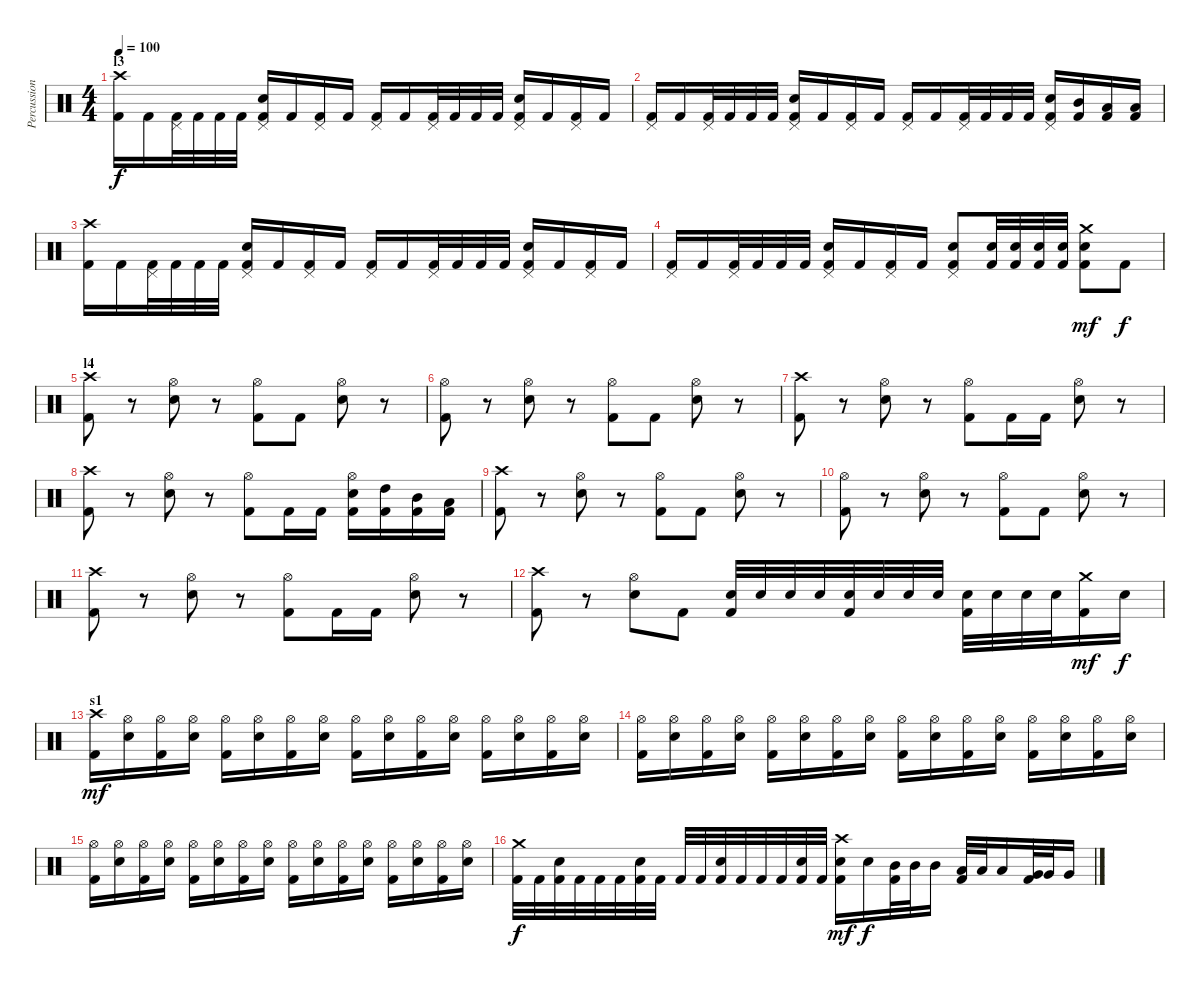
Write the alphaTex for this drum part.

\track ("Percussion" "Percussion") {instrument percussion}
\staff {score}
\articulation defaults
\ts (4 4)
\section ("" "l3")
\tempo 100
\clef neutral
\ks c
("Crash high (hit)" "Kick (hit) 2").16{dy f} "Kick (hit) 2".16 ("Pedal Hi-Hat (hit)" "Kick (hit) 2").32 "Kick (hit) 2".32 "Kick (hit) 2".32 "Kick (hit) 2".32 ("Pedal Hi-Hat (hit)" "Electric Snare (hit)" "Kick (hit) 2").16 "Kick (hit) 2".16 ("Pedal Hi-Hat (hit)" "Kick (hit) 2").16 "Kick (hit) 2".16 ("Pedal Hi-Hat (hit)" "Kick (hit) 2").16 "Kick (hit) 2".16 ("Pedal Hi-Hat (hit)" "Kick (hit) 2").32 "Kick (hit) 2".32 "Kick (hit) 2".32 "Kick (hit) 2".32 ("Pedal Hi-Hat (hit)" "Electric Snare (hit)" "Kick (hit) 2").16 "Kick (hit) 2".16 ("Pedal Hi-Hat (hit)" "Kick (hit) 2").16 "Kick (hit) 2".16 |
("Pedal Hi-Hat (hit)" "Kick (hit) 2").16 "Kick (hit) 2".16 ("Pedal Hi-Hat (hit)" "Kick (hit) 2").32 "Kick (hit) 2".32 "Kick (hit) 2".32 "Kick (hit) 2".32 ("Pedal Hi-Hat (hit)" "Electric Snare (hit)" "Kick (hit) 2").16 "Kick (hit) 2".16 ("Pedal Hi-Hat (hit)" "Kick (hit) 2").16 "Kick (hit) 2".16 ("Pedal Hi-Hat (hit)" "Kick (hit) 2").16 "Kick (hit) 2".16 ("Pedal Hi-Hat (hit)" "Kick (hit) 2").32 "Kick (hit) 2".32 "Kick (hit) 2".32 "Kick (hit) 2".32 ("Pedal Hi-Hat (hit)" "Electric Snare (hit)" "Kick (hit) 2").16 ("Mid Tom (hit)" "Kick (hit) 2").16 ("Low Tom (hit)" "Kick (hit) 2").16 ("Low Tom (hit)" "Kick (hit) 2").16 |
("Crash high (hit)" "Kick (hit) 2").16 "Kick (hit) 2".16 ("Pedal Hi-Hat (hit)" "Kick (hit) 2").32 "Kick (hit) 2".32 "Kick (hit) 2".32 "Kick (hit) 2".32 ("Pedal Hi-Hat (hit)" "Electric Snare (hit)" "Kick (hit) 2").16 "Kick (hit) 2".16 ("Pedal Hi-Hat (hit)" "Kick (hit) 2").16 "Kick (hit) 2".16 ("Pedal Hi-Hat (hit)" "Kick (hit) 2").16 "Kick (hit) 2".16 ("Pedal Hi-Hat (hit)" "Kick (hit) 2").32 "Kick (hit) 2".32 "Kick (hit) 2".32 "Kick (hit) 2".32 ("Pedal Hi-Hat (hit)" "Electric Snare (hit)" "Kick (hit) 2").16 "Kick (hit) 2".16 ("Pedal Hi-Hat (hit)" "Kick (hit) 2").16 "Kick (hit) 2".16 |
("Pedal Hi-Hat (hit)" "Kick (hit) 2").16 "Kick (hit) 2".16 ("Pedal Hi-Hat (hit)" "Kick (hit) 2").32 "Kick (hit) 2".32 "Kick (hit) 2".32 "Kick (hit) 2".32 ("Pedal Hi-Hat (hit)" "Electric Snare (hit)" "Kick (hit) 2").16 "Kick (hit) 2".16 ("Pedal Hi-Hat (hit)" "Kick (hit) 2").16 "Kick (hit) 2".16 ("Pedal Hi-Hat (hit)" "Electric Snare (hit)" "Kick (hit) 2").8 ("Electric Snare (hit)" "Kick (hit) 2").32 ("Electric Snare (hit)" "Kick (hit) 2").32 ("Electric Snare (hit)" "Kick (hit) 2").32 ("Electric Snare (hit)" "Kick (hit) 2").32 ("Crash medium (hit)" "Electric Snare (hit)" "Kick (hit) 2").8{dy mf} "Kick (hit) 2".8{dy f} |
\section ("" "l4")
("Crash high (hit)" "Kick (hit) 2").8 r.8 ("Hi-Hat (open)" "Electric Snare (hit)").8 r.8 ("Hi-Hat (open)" "Kick (hit) 2").8 "Kick (hit) 2".8 ("Hi-Hat (open)" "Electric Snare (hit)").8 r.8 |
("Hi-Hat (open)" "Kick (hit) 2").8 r.8 ("Hi-Hat (open)" "Electric Snare (hit)").8 r.8 ("Hi-Hat (open)" "Kick (hit) 2").8 "Kick (hit) 2".8 ("Hi-Hat (open)" "Electric Snare (hit)").8 r.8 |
("Crash high (hit)" "Kick (hit) 2").8 r.8 ("Hi-Hat (open)" "Electric Snare (hit)").8 r.8 ("Hi-Hat (open)" "Kick (hit) 2").8 "Kick (hit) 2".16 "Kick (hit) 2".16 ("Hi-Hat (open)" "Electric Snare (hit)").8 r.8 |
("Crash high (hit)" "Kick (hit) 2").8 r.8 ("Hi-Hat (open)" "Electric Snare (hit)").8 r.8 ("Hi-Hat (open)" "Kick (hit) 2").8 "Kick (hit) 2".16 "Kick (hit) 2".16 ("Hi-Hat (open)" "Electric Snare (hit)" "Kick (hit) 2").16 ("High Tom (hit)" "Kick (hit) 2").16 ("Mid Tom (hit)" "Kick (hit) 2").16 ("Low Tom (hit)" "Kick (hit) 2").16 |
("Crash high (hit)" "Kick (hit) 2").8 r.8 ("Hi-Hat (open)" "Electric Snare (hit)").8 r.8 ("Hi-Hat (open)" "Kick (hit) 2").8 "Kick (hit) 2".8 ("Hi-Hat (open)" "Electric Snare (hit)").8 r.8 |
("Hi-Hat (open)" "Kick (hit) 2").8 r.8 ("Hi-Hat (open)" "Electric Snare (hit)").8 r.8 ("Hi-Hat (open)" "Kick (hit) 2").8 "Kick (hit) 2".8 ("Hi-Hat (open)" "Electric Snare (hit)").8 r.8 |
("Crash high (hit)" "Kick (hit) 2").8 r.8 ("Hi-Hat (open)" "Electric Snare (hit)").8 r.8 ("Hi-Hat (open)" "Kick (hit) 2").8 "Kick (hit) 2".16 "Kick (hit) 2".16 ("Hi-Hat (open)" "Electric Snare (hit)").8 r.8 |
("Crash high (hit)" "Kick (hit) 2").8 r.8 ("Hi-Hat (open)" "Electric Snare (hit)").8 "Kick (hit) 2".8 ("Electric Snare (hit)" "Kick (hit) 2").32 "Electric Snare (hit)".32 "Electric Snare (hit)".32 "Electric Snare (hit)".32 ("Electric Snare (hit)" "Kick (hit) 2").32 "Electric Snare (hit)".32 "Electric Snare (hit)".32 "Electric Snare (hit)".32 ("Electric Snare (hit)" "Kick (hit) 2").32 "Electric Snare (hit)".32 "Electric Snare (hit)".32 "Electric Snare (hit)".32 ("Crash medium (hit)" "Kick (hit) 2").16{dy mf} "Electric Snare (hit)".16{dy f} |
\section ("" "s1")
("Crash high (hit)" "Kick (hit) 2").16{dy mf} ("Hi-Hat (open)" "Electric Snare (hit)").16 ("Hi-Hat (open)" "Kick (hit) 2").16 ("Hi-Hat (open)" "Electric Snare (hit)").16 ("Hi-Hat (open)" "Kick (hit) 2").16 ("Hi-Hat (open)" "Electric Snare (hit)").16 ("Hi-Hat (open)" "Kick (hit) 2").16 ("Hi-Hat (open)" "Electric Snare (hit)").16 ("Hi-Hat (open)" "Kick (hit) 2").16 ("Hi-Hat (open)" "Electric Snare (hit)").16 ("Hi-Hat (open)" "Kick (hit) 2").16 ("Hi-Hat (open)" "Electric Snare (hit)").16 ("Hi-Hat (open)" "Kick (hit) 2").16 ("Hi-Hat (open)" "Electric Snare (hit)").16 ("Hi-Hat (open)" "Kick (hit) 2").16 ("Hi-Hat (open)" "Electric Snare (hit)").16 |
("Hi-Hat (open)" "Kick (hit) 2").16 ("Hi-Hat (open)" "Electric Snare (hit)").16 ("Hi-Hat (open)" "Kick (hit) 2").16 ("Hi-Hat (open)" "Electric Snare (hit)").16 ("Hi-Hat (open)" "Kick (hit) 2").16 ("Hi-Hat (open)" "Electric Snare (hit)").16 ("Hi-Hat (open)" "Kick (hit) 2").16 ("Hi-Hat (open)" "Electric Snare (hit)").16 ("Hi-Hat (open)" "Kick (hit) 2").16 ("Hi-Hat (open)" "Electric Snare (hit)").16 ("Hi-Hat (open)" "Kick (hit) 2").16 ("Hi-Hat (open)" "Electric Snare (hit)").16 ("Hi-Hat (open)" "Kick (hit) 2").16 ("Hi-Hat (open)" "Electric Snare (hit)").16 ("Hi-Hat (open)" "Kick (hit) 2").16 ("Hi-Hat (open)" "Electric Snare (hit)").16 |
("Hi-Hat (open)" "Kick (hit) 2").16 ("Hi-Hat (open)" "Electric Snare (hit)").16 ("Hi-Hat (open)" "Kick (hit) 2").16 ("Hi-Hat (open)" "Electric Snare (hit)").16 ("Hi-Hat (open)" "Kick (hit) 2").16 ("Hi-Hat (open)" "Electric Snare (hit)").16 ("Hi-Hat (open)" "Kick (hit) 2").16 ("Hi-Hat (open)" "Electric Snare (hit)").16 ("Hi-Hat (open)" "Kick (hit) 2").16 ("Hi-Hat (open)" "Electric Snare (hit)").16 ("Hi-Hat (open)" "Kick (hit) 2").16 ("Hi-Hat (open)" "Electric Snare (hit)").16 ("Hi-Hat (open)" "Kick (hit) 2").16 ("Hi-Hat (open)" "Electric Snare (hit)").16 ("Hi-Hat (open)" "Kick (hit) 2").16 ("Hi-Hat (open)" "Electric Snare (hit)").16 |
("Crash medium (hit)" "Kick (hit) 2").32{dy f} "Kick (hit) 2".32 ("Electric Snare (hit)" "Kick (hit) 2").32 "Kick (hit) 2".32 "Kick (hit) 2".32 "Kick (hit) 2".32 ("Electric Snare (hit)" "Kick (hit) 2").32 "Kick (hit) 2".32 "Kick (hit) 2".32 "Kick (hit) 2".32 ("Electric Snare (hit)" "Kick (hit) 2").32 "Kick (hit) 2".32 "Kick (hit) 2".32 "Kick (hit) 2".32 ("Electric Snare (hit)" "Kick (hit) 2").32 "Kick (hit) 2".32 ("Crash high (hit)" "Electric Snare (hit)" "Kick (hit) 2").16{dy mf} "Electric Snare (hit)".16{dy f} ("Mid Tom (hit)" "Kick (hit) 2").32 "Mid Tom (hit)".32 "Mid Tom (hit)".16 ("Low Tom (hit)" "Kick (hit) 2").32 "Low Tom (hit)".32 "Low Tom (hit)".16 ("Very Low Tom (hit)" "Kick (hit) 2").32 "Very Low Tom (hit)".32 "Very Low Tom (hit)".16
